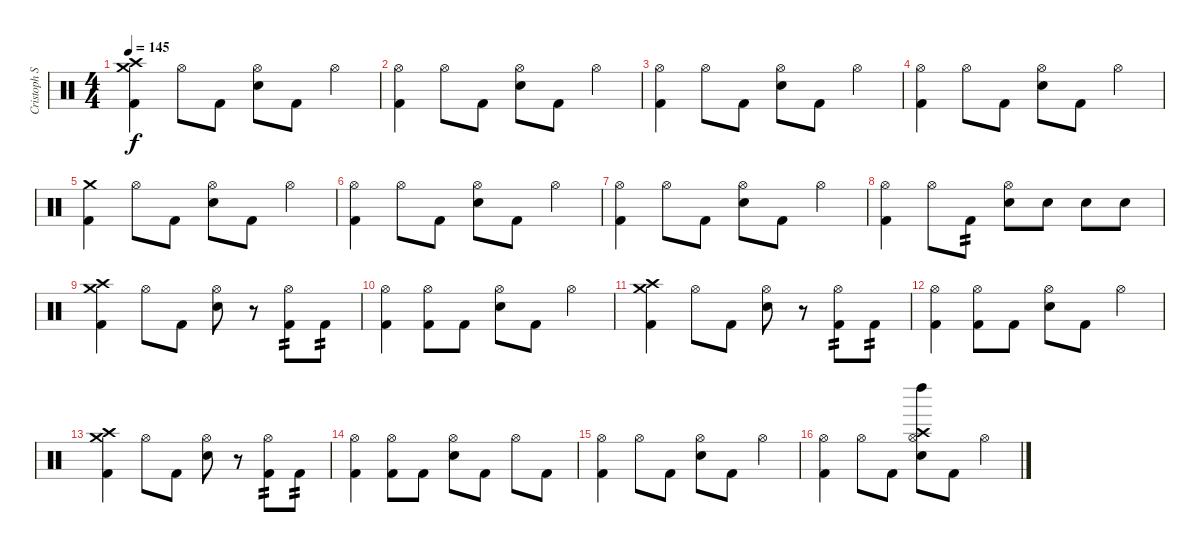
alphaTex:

\track ("Cristoph Schneider" "Cristoph S") {instrument percussion}
\staff {score}
\articulation defaults
\ts (4 4)
\tempo 145
\clef neutral
\ks c
("Crash high (hit)" "Crash medium (hit)" "Kick (hit) 2").4{dy f} "Hi-Hat (open)".8 "Kick (hit) 2".8 ("Hi-Hat (open)" "Electric Snare (hit)").8 "Kick (hit) 2".8 "Hi-Hat (open)".4 |
("Hi-Hat (open)" "Kick (hit) 2").4 "Hi-Hat (open)".8 "Kick (hit) 2".8 ("Hi-Hat (open)" "Electric Snare (hit)").8 "Kick (hit) 2".8 "Hi-Hat (open)".4 |
("Hi-Hat (open)" "Kick (hit) 2").4 "Hi-Hat (open)".8 "Kick (hit) 2".8 ("Hi-Hat (open)" "Electric Snare (hit)").8 "Kick (hit) 2".8 "Hi-Hat (open)".4 |
("Hi-Hat (open)" "Kick (hit) 2").4 "Hi-Hat (open)".8 "Kick (hit) 2".8 ("Hi-Hat (open)" "Electric Snare (hit)").8 "Kick (hit) 2".8 "Hi-Hat (open)".4 |
("Crash medium (hit)" "Kick (hit) 2").4 "Hi-Hat (open)".8 "Kick (hit) 2".8 ("Hi-Hat (open)" "Electric Snare (hit)").8 "Kick (hit) 2".8 "Hi-Hat (open)".4 |
("Hi-Hat (open)" "Kick (hit) 2").4 "Hi-Hat (open)".8 "Kick (hit) 2".8 ("Hi-Hat (open)" "Electric Snare (hit)").8 "Kick (hit) 2".8 "Hi-Hat (open)".4 |
("Hi-Hat (open)" "Kick (hit) 2").4 "Hi-Hat (open)".8 "Kick (hit) 2".8 ("Hi-Hat (open)" "Electric Snare (hit)").8 "Kick (hit) 2".8 "Hi-Hat (open)".4 |
("Hi-Hat (open)" "Kick (hit) 2").4 "Hi-Hat (open)".8 "Kick (hit) 2".8{tp 2} ("Hi-Hat (open)" "Electric Snare (hit)").8 "Electric Snare (hit)".8 "Electric Snare (hit)".8 "Electric Snare (hit)".8 |
("Crash high (hit)" "Crash medium (hit)" "Kick (hit) 2").4 "Hi-Hat (open)".8 "Kick (hit) 2".8 ("Hi-Hat (open)" "Electric Snare (hit)").8 r.8 ("Hi-Hat (open)" "Kick (hit) 2").8{tp 2} "Kick (hit) 2".8{tp 2} |
("Hi-Hat (open)" "Kick (hit) 2").4 ("Hi-Hat (open)" "Kick (hit) 2").8 "Kick (hit) 2".8 ("Hi-Hat (open)" "Electric Snare (hit)").8 "Kick (hit) 2".8 "Hi-Hat (open)".4 |
("Crash high (hit)" "Crash medium (hit)" "Kick (hit) 2").4 "Hi-Hat (open)".8 "Kick (hit) 2".8 ("Hi-Hat (open)" "Electric Snare (hit)").8 r.8 ("Hi-Hat (open)" "Kick (hit) 2").8{tp 2} "Kick (hit) 2".8{tp 2} |
("Hi-Hat (open)" "Kick (hit) 2").4 ("Hi-Hat (open)" "Kick (hit) 2").8 "Kick (hit) 2".8 ("Hi-Hat (open)" "Electric Snare (hit)").8 "Kick (hit) 2".8 "Hi-Hat (open)".4 |
("Crash high (hit)" "Crash medium (hit)" "Kick (hit) 2").4 "Hi-Hat (open)".8 "Kick (hit) 2".8 ("Hi-Hat (open)" "Electric Snare (hit)").8 r.8 ("Hi-Hat (open)" "Kick (hit) 2").8{tp 2} "Kick (hit) 2".8{tp 2} |
("Hi-Hat (open)" "Kick (hit) 2").4 ("Hi-Hat (open)" "Kick (hit) 2").8 "Kick (hit) 2".8 ("Hi-Hat (open)" "Electric Snare (hit)").8 "Kick (hit) 2".8 "Hi-Hat (open)".8 "Kick (hit) 2".8 |
("Hi-Hat (open)" "Kick (hit) 2").4 "Hi-Hat (open)".8 "Kick (hit) 2".8 ("Hi-Hat (open)" "Electric Snare (hit)").8 "Kick (hit) 2".8 "Hi-Hat (open)".4 |
("Hi-Hat (open)" "Kick (hit) 2").4 "Hi-Hat (open)".8 "Kick (hit) 2".8 ("Hi-Hat (open)" "Crash high (hit)" "Left Maraca (hit)" "Electric Snare (hit)").8 "Kick (hit) 2".8 "Hi-Hat (open)".4
